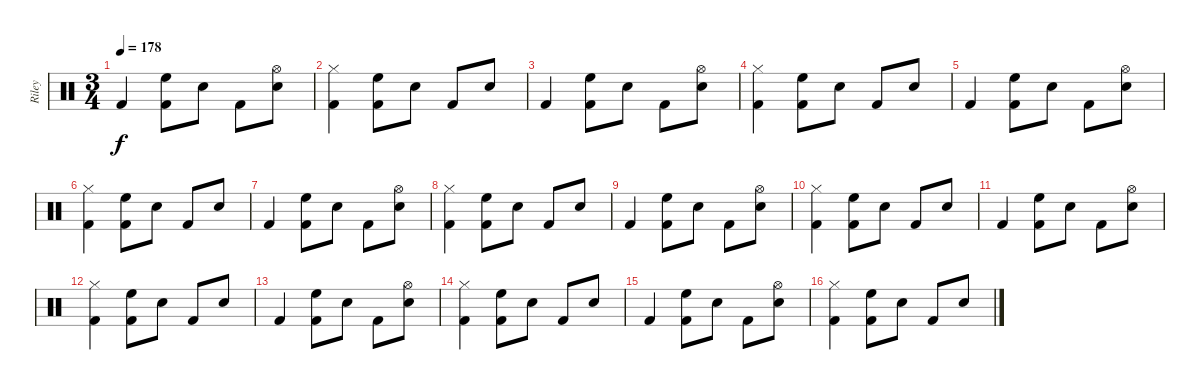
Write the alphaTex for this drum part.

\track ("Riley" "Riley") {instrument percussion}
\staff {score}
\articulation defaults
\ts (3 4)
\tempo 178
\clef neutral
\ks c "Kick (hit) 2".4{dy f}
("High Floor Tom (hit)" "Kick (hit) 2").8 "Snare (hit) 2".8 "Kick (hit) 2".8 ("Hi-Hat (open)" "Snare (hit) 2").8 |
("Hi-Hat (closed)" "Kick (hit) 2").4 ("High Floor Tom (hit)" "Kick (hit) 2").8 "Snare (hit) 2".8 "Kick (hit) 2".8 "Snare (hit) 2".8 |
"Kick (hit) 2".4 ("High Floor Tom (hit)" "Kick (hit) 2").8 "Snare (hit) 2".8 "Kick (hit) 2".8 ("Hi-Hat (open)" "Snare (hit) 2").8 |
("Hi-Hat (closed)" "Kick (hit) 2").4 ("High Floor Tom (hit)" "Kick (hit) 2").8 "Snare (hit) 2".8 "Kick (hit) 2".8 "Snare (hit) 2".8 |
"Kick (hit) 2".4 ("High Floor Tom (hit)" "Kick (hit) 2").8 "Snare (hit) 2".8 "Kick (hit) 2".8 ("Hi-Hat (open)" "Snare (hit) 2").8 |
("Hi-Hat (closed)" "Kick (hit) 2").4 ("High Floor Tom (hit)" "Kick (hit) 2").8 "Snare (hit) 2".8 "Kick (hit) 2".8 "Snare (hit) 2".8 |
"Kick (hit) 2".4 ("High Floor Tom (hit)" "Kick (hit) 2").8 "Snare (hit) 2".8 "Kick (hit) 2".8 ("Hi-Hat (open)" "Snare (hit) 2").8 |
("Hi-Hat (closed)" "Kick (hit) 2").4 ("High Floor Tom (hit)" "Kick (hit) 2").8 "Snare (hit) 2".8 "Kick (hit) 2".8 "Snare (hit) 2".8 |
"Kick (hit) 2".4 ("High Floor Tom (hit)" "Kick (hit) 2").8 "Snare (hit) 2".8 "Kick (hit) 2".8 ("Hi-Hat (open)" "Snare (hit) 2").8 |
("Hi-Hat (closed)" "Kick (hit) 2").4 ("High Floor Tom (hit)" "Kick (hit) 2").8 "Snare (hit) 2".8 "Kick (hit) 2".8 "Snare (hit) 2".8 |
"Kick (hit) 2".4 ("High Floor Tom (hit)" "Kick (hit) 2").8 "Snare (hit) 2".8 "Kick (hit) 2".8 ("Hi-Hat (open)" "Snare (hit) 2").8 |
("Hi-Hat (closed)" "Kick (hit) 2").4 ("High Floor Tom (hit)" "Kick (hit) 2").8 "Snare (hit) 2".8 "Kick (hit) 2".8 "Snare (hit) 2".8 |
"Kick (hit) 2".4 ("High Floor Tom (hit)" "Kick (hit) 2").8 "Snare (hit) 2".8 "Kick (hit) 2".8 ("Hi-Hat (open)" "Snare (hit) 2").8 |
("Hi-Hat (closed)" "Kick (hit) 2").4 ("High Floor Tom (hit)" "Kick (hit) 2").8 "Snare (hit) 2".8 "Kick (hit) 2".8 "Snare (hit) 2".8 |
"Kick (hit) 2".4 ("High Floor Tom (hit)" "Kick (hit) 2").8 "Snare (hit) 2".8 "Kick (hit) 2".8 ("Hi-Hat (open)" "Snare (hit) 2").8 |
("Hi-Hat (closed)" "Kick (hit) 2").4 ("High Floor Tom (hit)" "Kick (hit) 2").8 "Snare (hit) 2".8 "Kick (hit) 2".8 "Snare (hit) 2".8
